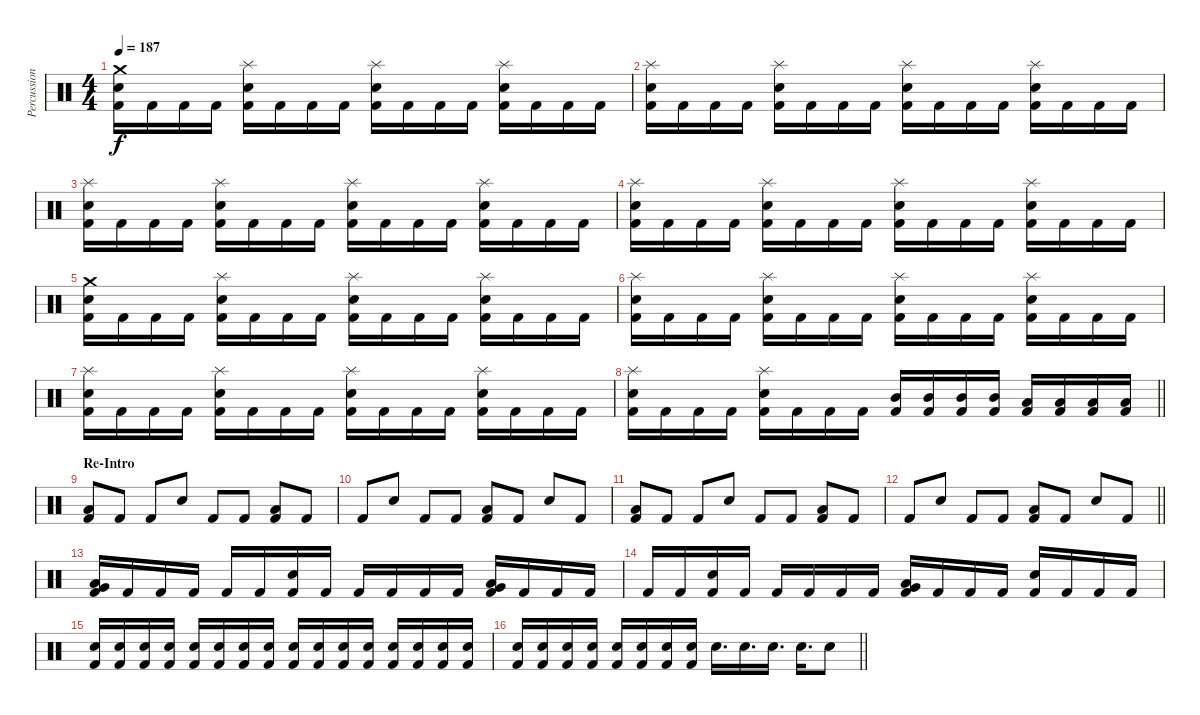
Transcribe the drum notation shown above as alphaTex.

\track ("Percussion" "Percussion") {instrument percussion}
\staff {score}
\articulation defaults
\ts (4 4)
\section ("" "")
\tempo 187
\clef neutral
\ks c
("Kick (hit) 2" "Snare (hit) 2" "Crash medium (hit)").16{dy f} "Kick (hit) 2".16 "Kick (hit) 2".16 "Kick (hit) 2".16 ("Kick (hit) 2" "Snare (hit) 2" "Splash (hit)").16 "Kick (hit) 2".16 "Kick (hit) 2".16 "Kick (hit) 2".16 ("Kick (hit) 2" "Snare (hit) 2" "Splash (hit)").16 "Kick (hit) 2".16 "Kick (hit) 2".16 "Kick (hit) 2".16 ("Kick (hit) 2" "Snare (hit) 2" "Splash (hit)").16 "Kick (hit) 2".16 "Kick (hit) 2".16 "Kick (hit) 2".16 |
("Kick (hit) 2" "Snare (hit) 2" "Splash (hit)").16 "Kick (hit) 2".16 "Kick (hit) 2".16 "Kick (hit) 2".16 ("Kick (hit) 2" "Snare (hit) 2" "Splash (hit)").16 "Kick (hit) 2".16 "Kick (hit) 2".16 "Kick (hit) 2".16 ("Kick (hit) 2" "Snare (hit) 2" "Splash (hit)").16 "Kick (hit) 2".16 "Kick (hit) 2".16 "Kick (hit) 2".16 ("Kick (hit) 2" "Snare (hit) 2" "Splash (hit)").16 "Kick (hit) 2".16 "Kick (hit) 2".16 "Kick (hit) 2".16 |
("Kick (hit) 2" "Snare (hit) 2" "Splash (hit)").16 "Kick (hit) 2".16 "Kick (hit) 2".16 "Kick (hit) 2".16 ("Kick (hit) 2" "Snare (hit) 2" "Splash (hit)").16 "Kick (hit) 2".16 "Kick (hit) 2".16 "Kick (hit) 2".16 ("Kick (hit) 2" "Snare (hit) 2" "Splash (hit)").16 "Kick (hit) 2".16 "Kick (hit) 2".16 "Kick (hit) 2".16 ("Kick (hit) 2" "Snare (hit) 2" "Splash (hit)").16 "Kick (hit) 2".16 "Kick (hit) 2".16 "Kick (hit) 2".16 |
("Kick (hit) 2" "Snare (hit) 2" "Splash (hit)").16 "Kick (hit) 2".16 "Kick (hit) 2".16 "Kick (hit) 2".16 ("Kick (hit) 2" "Snare (hit) 2" "Splash (hit)").16 "Kick (hit) 2".16 "Kick (hit) 2".16 "Kick (hit) 2".16 ("Kick (hit) 2" "Snare (hit) 2" "Splash (hit)").16 "Kick (hit) 2".16 "Kick (hit) 2".16 "Kick (hit) 2".16 ("Kick (hit) 2" "Snare (hit) 2" "Splash (hit)").16 "Kick (hit) 2".16 "Kick (hit) 2".16 "Kick (hit) 2".16 |
("Kick (hit) 2" "Snare (hit) 2" "Crash medium (hit)").16 "Kick (hit) 2".16 "Kick (hit) 2".16 "Kick (hit) 2".16 ("Kick (hit) 2" "Snare (hit) 2" "Splash (hit)").16 "Kick (hit) 2".16 "Kick (hit) 2".16 "Kick (hit) 2".16 ("Kick (hit) 2" "Snare (hit) 2" "Splash (hit)").16 "Kick (hit) 2".16 "Kick (hit) 2".16 "Kick (hit) 2".16 ("Kick (hit) 2" "Snare (hit) 2" "Splash (hit)").16 "Kick (hit) 2".16 "Kick (hit) 2".16 "Kick (hit) 2".16 |
("Kick (hit) 2" "Snare (hit) 2" "Splash (hit)").16 "Kick (hit) 2".16 "Kick (hit) 2".16 "Kick (hit) 2".16 ("Kick (hit) 2" "Snare (hit) 2" "Splash (hit)").16 "Kick (hit) 2".16 "Kick (hit) 2".16 "Kick (hit) 2".16 ("Kick (hit) 2" "Snare (hit) 2" "Splash (hit)").16 "Kick (hit) 2".16 "Kick (hit) 2".16 "Kick (hit) 2".16 ("Kick (hit) 2" "Snare (hit) 2" "Splash (hit)").16 "Kick (hit) 2".16 "Kick (hit) 2".16 "Kick (hit) 2".16 |
("Kick (hit) 2" "Snare (hit) 2" "Splash (hit)").16 "Kick (hit) 2".16 "Kick (hit) 2".16 "Kick (hit) 2".16 ("Kick (hit) 2" "Snare (hit) 2" "Splash (hit)").16 "Kick (hit) 2".16 "Kick (hit) 2".16 "Kick (hit) 2".16 ("Kick (hit) 2" "Snare (hit) 2" "Splash (hit)").16 "Kick (hit) 2".16 "Kick (hit) 2".16 "Kick (hit) 2".16 ("Kick (hit) 2" "Snare (hit) 2" "Splash (hit)").16 "Kick (hit) 2".16 "Kick (hit) 2".16 "Kick (hit) 2".16 |
\barLineRight lightlight
("Kick (hit) 2" "Snare (hit) 2" "Splash (hit)").16 "Kick (hit) 2".16 "Kick (hit) 2".16 "Kick (hit) 2".16 ("Kick (hit) 2" "Snare (hit) 2" "Splash (hit)").16 "Kick (hit) 2".16 "Kick (hit) 2".16 "Kick (hit) 2".16 ("Kick (hit) 2" "Mid Tom (hit)").16 ("Kick (hit) 2" "Mid Tom (hit)").16 ("Kick (hit) 2" "Mid Tom (hit)").16 ("Kick (hit) 2" "Mid Tom (hit)").16 ("Kick (hit) 2" "Low Tom (hit)").16 ("Kick (hit) 2" "Low Tom (hit)").16 ("Kick (hit) 2" "Low Tom (hit)").16 ("Kick (hit) 2" "Low Tom (hit)").16 |
\section ("" "Re-Intro")
("Kick (hit) 2" "Low Floor Tom (hit)").8 "Kick (hit) 2".8 "Kick (hit) 2".8 "Snare (hit) 2".8 "Kick (hit) 2".8 "Kick (hit) 2".8 ("Kick (hit) 2" "Low Floor Tom (hit)").8 "Kick (hit) 2".8 |
"Kick (hit) 2".8 "Snare (hit) 2".8 "Kick (hit) 2".8 "Kick (hit) 2".8 ("Kick (hit) 2" "Low Floor Tom (hit)").8 "Kick (hit) 2".8 "Snare (hit) 2".8 "Kick (hit) 2".8 |
("Kick (hit) 2" "Low Floor Tom (hit)").8 "Kick (hit) 2".8 "Kick (hit) 2".8 "Snare (hit) 2".8 "Kick (hit) 2".8 "Kick (hit) 2".8 ("Kick (hit) 2" "Low Floor Tom (hit)").8 "Kick (hit) 2".8 |
\barLineRight lightlight "Kick (hit) 2".8 "Snare (hit) 2".8 "Kick (hit) 2".8 "Kick (hit) 2".8
("Kick (hit) 2" "Low Floor Tom (hit)").8 "Kick (hit) 2".8 "Snare (hit) 2".8 "Kick (hit) 2".8 |
\section ("" "")
("Kick (hit) 2" "Low Floor Tom (hit)" "Very Low Tom (hit)").16 "Kick (hit) 2".16 "Kick (hit) 2".16 "Kick (hit) 2".16 "Kick (hit) 2".16 "Kick (hit) 2".16 ("Kick (hit) 2" "Snare (hit) 2").16 "Kick (hit) 2".16 "Kick (hit) 2".16 "Kick (hit) 2".16 "Kick (hit) 2".16 "Kick (hit) 2".16 ("Kick (hit) 2" "Low Floor Tom (hit)" "Very Low Tom (hit)").16 "Kick (hit) 2".16 "Kick (hit) 2".16 "Kick (hit) 2".16 |
"Kick (hit) 2".16 "Kick (hit) 2".16 ("Kick (hit) 2" "Snare (hit) 2").16 "Kick (hit) 2".16 "Kick (hit) 2".16 "Kick (hit) 2".16 "Kick (hit) 2".16 "Kick (hit) 2".16 ("Kick (hit) 2" "Low Floor Tom (hit)" "Very Low Tom (hit)").16 "Kick (hit) 2".16 "Kick (hit) 2".16 "Kick (hit) 2".16 ("Kick (hit) 2" "Snare (hit) 2").16 "Kick (hit) 2".16 "Kick (hit) 2".16 "Kick (hit) 2".16 |
("Kick (hit) 2" "Snare (hit) 2").16{volume 9} ("Kick (hit) 2" "Snare (hit) 2").16{volume 16} ("Kick (hit) 2" "Snare (hit) 2").16 ("Kick (hit) 2" "Snare (hit) 2").16 ("Kick (hit) 2" "Snare (hit) 2").16 ("Kick (hit) 2" "Snare (hit) 2").16 ("Kick (hit) 2" "Snare (hit) 2").16 ("Kick (hit) 2" "Snare (hit) 2").16 ("Kick (hit) 2" "Snare (hit) 2").16 ("Kick (hit) 2" "Snare (hit) 2").16 ("Kick (hit) 2" "Snare (hit) 2").16 ("Kick (hit) 2" "Snare (hit) 2").16 ("Kick (hit) 2" "Snare (hit) 2").16 ("Kick (hit) 2" "Snare (hit) 2").16 ("Kick (hit) 2" "Snare (hit) 2").16 ("Kick (hit) 2" "Snare (hit) 2").16 |
\barLineRight lightlight
("Kick (hit) 2" "Snare (hit) 2").16 ("Kick (hit) 2" "Snare (hit) 2").16 ("Kick (hit) 2" "Snare (hit) 2").16 ("Kick (hit) 2" "Snare (hit) 2").16 ("Kick (hit) 2" "Snare (hit) 2").16 ("Kick (hit) 2" "Snare (hit) 2").16 ("Kick (hit) 2" "Snare (hit) 2").16 ("Kick (hit) 2" "Snare (hit) 2").16 "Snare (hit) 2".16{d} "Snare (hit) 2".16{d} "Snare (hit) 2".16{d} "Snare (hit) 2".16{d} "Snare (hit) 2".8
